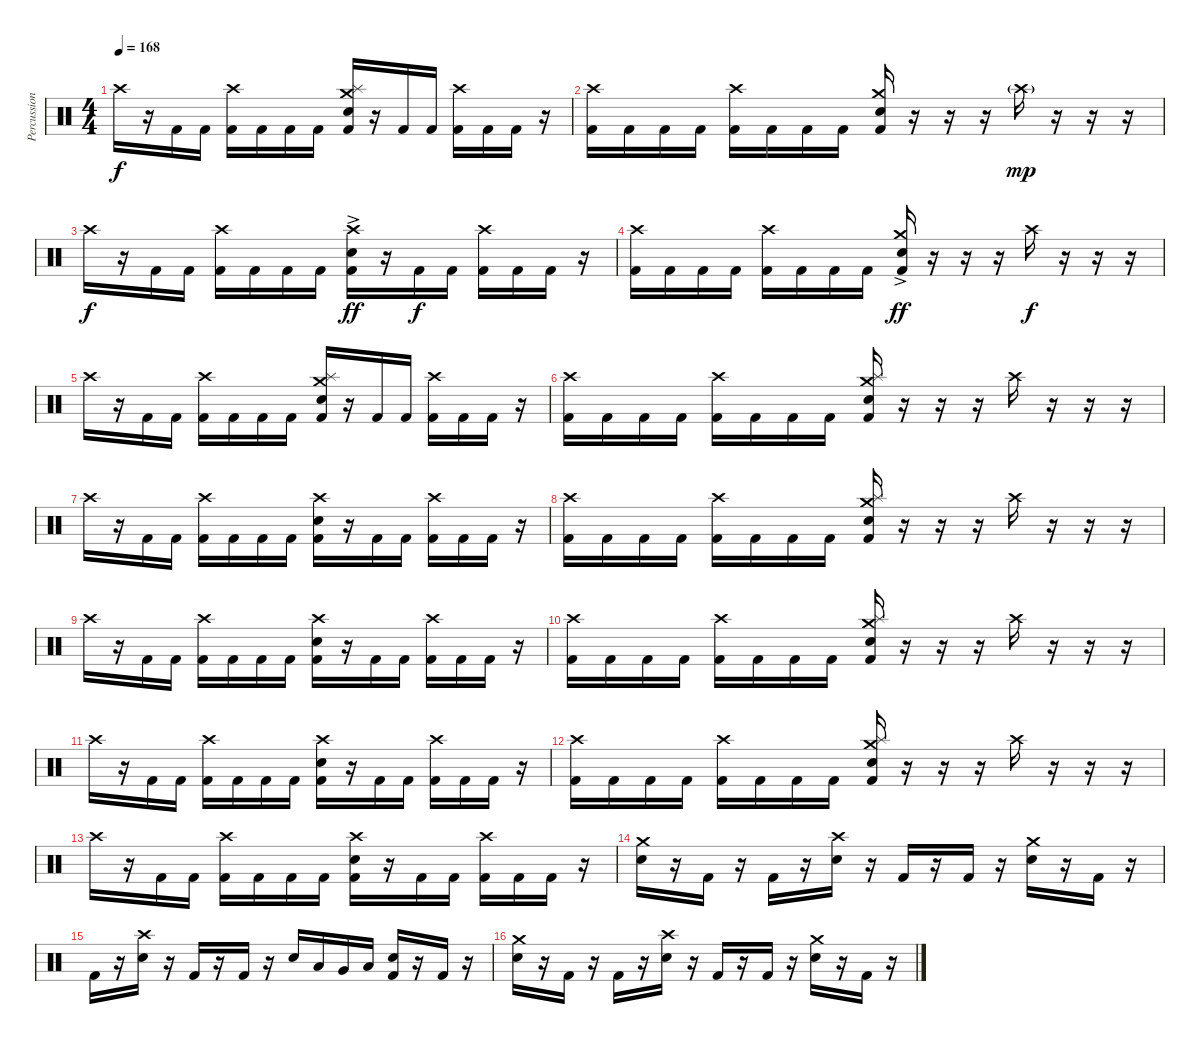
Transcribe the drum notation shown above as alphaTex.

\track ("Percussion" "Percussion") {instrument percussion}
\staff {score}
\articulation defaults
\ts (4 4)
\tempo 168
\clef neutral
\ks c "Crash high (hit)".16{dy f}
r.16 "Kick (hit) 2".16 "Kick (hit) 2".16 ("Crash high (hit)" "Kick (hit) 2").16 "Kick (hit) 2".16 "Kick (hit) 2".16 "Kick (hit) 2".16 ("Crash medium (hit)" "Splash (hit)" "Electric Snare (hit)" "Kick (hit) 2").16 r.16 "Kick (hit) 2".16 "Kick (hit) 2".16 ("Crash high (hit)" "Kick (hit) 2").16 "Kick (hit) 2".16 "Kick (hit) 2".16 r.16 |
("Crash high (hit)" "Kick (hit) 2").16 "Kick (hit) 2".16 "Kick (hit) 2".16 "Kick (hit) 2".16 ("Crash high (hit)" "Kick (hit) 2").16 "Kick (hit) 2".16 "Kick (hit) 2".16 "Kick (hit) 2".16 ("Crash medium (hit)" "Electric Snare (hit)" "Kick (hit) 2").16 r.16 r.16 r.16 "Crash high (hit)"{g}.16{dy mp} r.16 r.16 r.16 |
"Crash high (hit)".16{dy f} r.16 "Kick (hit) 2".16 "Kick (hit) 2".16 ("Crash high (hit)" "Kick (hit) 2").16 "Kick (hit) 2".16 "Kick (hit) 2".16 "Kick (hit) 2".16 ("Crash high (hit)"{ac} "Electric Snare (hit)" "Kick (hit) 2").16{dy ff} r.16 "Kick (hit) 2".16{dy f} "Kick (hit) 2".16 ("Crash high (hit)" "Kick (hit) 2").16 "Kick (hit) 2".16 "Kick (hit) 2".16 r.16 |
("Crash high (hit)" "Kick (hit) 2").16 "Kick (hit) 2".16 "Kick (hit) 2".16 "Kick (hit) 2".16 ("Crash high (hit)" "Kick (hit) 2").16 "Kick (hit) 2".16 "Kick (hit) 2".16 "Kick (hit) 2".16 ("Crash medium (hit)"{ac} "Electric Snare (hit)" "Kick (hit) 2").16{dy ff} r.16 r.16 r.16 "Crash high (hit)".16{dy f} r.16 r.16 r.16 |
"Crash high (hit)".16 r.16 "Kick (hit) 2".16 "Kick (hit) 2".16 ("Crash high (hit)" "Kick (hit) 2").16 "Kick (hit) 2".16 "Kick (hit) 2".16 "Kick (hit) 2".16 ("Crash medium (hit)" "Splash (hit)" "Electric Snare (hit)" "Kick (hit) 2").16 r.16 "Kick (hit) 2".16 "Kick (hit) 2".16 ("Crash high (hit)" "Kick (hit) 2").16 "Kick (hit) 2".16 "Kick (hit) 2".16 r.16 |
("Crash high (hit)" "Kick (hit) 2").16 "Kick (hit) 2".16 "Kick (hit) 2".16 "Kick (hit) 2".16 ("Crash high (hit)" "Kick (hit) 2").16 "Kick (hit) 2".16 "Kick (hit) 2".16 "Kick (hit) 2".16 ("Splash (hit)" "Crash medium (hit)" "Electric Snare (hit)" "Kick (hit) 2").16 r.16 r.16 r.16 "Crash high (hit)".16 r.16 r.16 r.16 |
"Crash high (hit)".16 r.16 "Kick (hit) 2".16 "Kick (hit) 2".16 ("Crash high (hit)" "Kick (hit) 2").16 "Kick (hit) 2".16 "Kick (hit) 2".16 "Kick (hit) 2".16 ("Crash high (hit)" "Electric Snare (hit)" "Kick (hit) 2").16 r.16 "Kick (hit) 2".16 "Kick (hit) 2".16 ("Crash high (hit)" "Kick (hit) 2").16 "Kick (hit) 2".16 "Kick (hit) 2".16 r.16 |
("Crash high (hit)" "Kick (hit) 2").16 "Kick (hit) 2".16 "Kick (hit) 2".16 "Kick (hit) 2".16 ("Crash high (hit)" "Kick (hit) 2").16 "Kick (hit) 2".16 "Kick (hit) 2".16 "Kick (hit) 2".16 ("Splash (hit)" "Crash medium (hit)" "Electric Snare (hit)" "Kick (hit) 2").16 r.16 r.16 r.16 "Crash high (hit)".16 r.16 r.16 r.16 |
"Crash high (hit)".16 r.16 "Kick (hit) 2".16 "Kick (hit) 2".16 ("Crash high (hit)" "Kick (hit) 2").16 "Kick (hit) 2".16 "Kick (hit) 2".16 "Kick (hit) 2".16 ("Crash high (hit)" "Electric Snare (hit)" "Kick (hit) 2").16 r.16 "Kick (hit) 2".16 "Kick (hit) 2".16 ("Crash high (hit)" "Kick (hit) 2").16 "Kick (hit) 2".16 "Kick (hit) 2".16 r.16 |
("Crash high (hit)" "Kick (hit) 2").16 "Kick (hit) 2".16 "Kick (hit) 2".16 "Kick (hit) 2".16 ("Crash high (hit)" "Kick (hit) 2").16 "Kick (hit) 2".16 "Kick (hit) 2".16 "Kick (hit) 2".16 ("Splash (hit)" "Crash medium (hit)" "Electric Snare (hit)" "Kick (hit) 2").16 r.16 r.16 r.16 "Crash high (hit)".16 r.16 r.16 r.16 |
"Crash high (hit)".16 r.16 "Kick (hit) 2".16 "Kick (hit) 2".16 ("Crash high (hit)" "Kick (hit) 2").16 "Kick (hit) 2".16 "Kick (hit) 2".16 "Kick (hit) 2".16 ("Crash high (hit)" "Electric Snare (hit)" "Kick (hit) 2").16 r.16 "Kick (hit) 2".16 "Kick (hit) 2".16 ("Crash high (hit)" "Kick (hit) 2").16 "Kick (hit) 2".16 "Kick (hit) 2".16 r.16 |
("Crash high (hit)" "Kick (hit) 2").16 "Kick (hit) 2".16 "Kick (hit) 2".16 "Kick (hit) 2".16 ("Crash high (hit)" "Kick (hit) 2").16 "Kick (hit) 2".16 "Kick (hit) 2".16 "Kick (hit) 2".16 ("Splash (hit)" "Crash medium (hit)" "Electric Snare (hit)" "Kick (hit) 2").16 r.16 r.16 r.16 "Crash high (hit)".16 r.16 r.16 r.16 |
"Crash high (hit)".16 r.16 "Kick (hit) 2".16 "Kick (hit) 2".16 ("Crash high (hit)" "Kick (hit) 2").16 "Kick (hit) 2".16 "Kick (hit) 2".16 "Kick (hit) 2".16 ("Crash high (hit)" "Electric Snare (hit)" "Kick (hit) 2").16 r.16 "Kick (hit) 2".16 "Kick (hit) 2".16 ("Crash high (hit)" "Kick (hit) 2").16 "Kick (hit) 2".16 "Kick (hit) 2".16 r.16 |
("Crash medium (hit)" "Electric Snare (hit)").16 r.16 "Kick (hit) 2".16 r.16 "Kick (hit) 2".16 r.16 ("Crash high (hit)" "Electric Snare (hit)").16 r.16 "Kick (hit) 2".16 r.16 "Kick (hit) 2".16 r.16 ("Crash medium (hit)" "Electric Snare (hit)").16 r.16 "Kick (hit) 2".16 r.16 |
"Kick (hit) 2".16 r.16 ("Crash high (hit)" "Electric Snare (hit)").16 r.16 "Kick (hit) 2".16 r.16 "Kick (hit) 2".16 r.16 "Electric Snare (hit)".16 "Low Tom (hit)".16 "Very Low Tom (hit)".16 "Low Floor Tom (hit)".16 ("Electric Snare (hit)" "Kick (hit) 2").16 r.16 "Kick (hit) 2".16 r.16 |
("Crash medium (hit)" "Electric Snare (hit)").16 r.16 "Kick (hit) 2".16 r.16 "Kick (hit) 2".16 r.16 ("Crash high (hit)" "Electric Snare (hit)").16 r.16 "Kick (hit) 2".16 r.16 "Kick (hit) 2".16 r.16 ("Crash medium (hit)" "Electric Snare (hit)").16 r.16 "Kick (hit) 2".16 r.16
